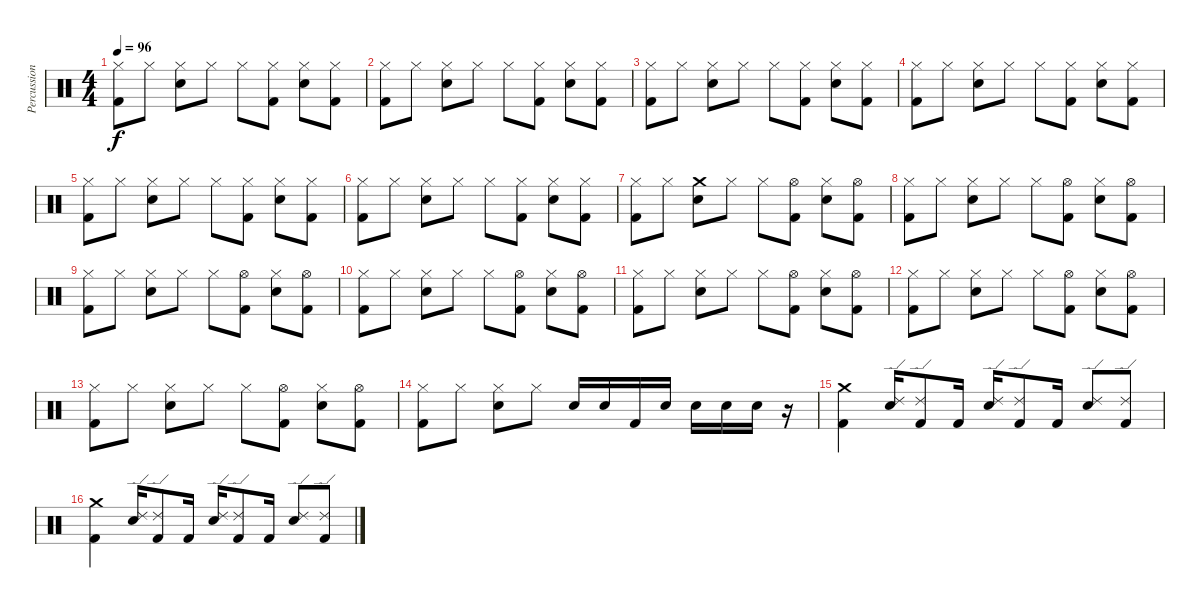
\track ("Percussion" "Percussion") {instrument percussion}
\staff {score}
\articulation defaults
\ts (4 4)
\tempo 96
\clef neutral
\ks c
("Hi-Hat (closed)" "Kick (hit) 2").8{dy f} "Hi-Hat (closed)".8 ("Hi-Hat (closed)" "Snare (hit) 2").8 "Hi-Hat (closed)".8 "Hi-Hat (closed)".8 ("Hi-Hat (closed)" "Kick (hit) 2").8 ("Hi-Hat (closed)" "Snare (hit) 2").8 ("Hi-Hat (closed)" "Kick (hit) 2").8 |
("Hi-Hat (closed)" "Kick (hit) 2").8 "Hi-Hat (closed)".8 ("Hi-Hat (closed)" "Snare (hit) 2").8 "Hi-Hat (closed)".8 "Hi-Hat (closed)".8 ("Hi-Hat (closed)" "Kick (hit) 2").8 ("Hi-Hat (closed)" "Snare (hit) 2").8 ("Hi-Hat (closed)" "Kick (hit) 2").8 |
("Hi-Hat (closed)" "Kick (hit) 2").8 "Hi-Hat (closed)".8 ("Hi-Hat (closed)" "Snare (hit) 2").8 "Hi-Hat (closed)".8 "Hi-Hat (closed)".8 ("Hi-Hat (closed)" "Kick (hit) 2").8 ("Hi-Hat (closed)" "Snare (hit) 2").8 ("Hi-Hat (closed)" "Kick (hit) 2").8 |
("Hi-Hat (closed)" "Kick (hit) 2").8 "Hi-Hat (closed)".8 ("Hi-Hat (closed)" "Snare (hit) 2").8 "Hi-Hat (closed)".8 "Hi-Hat (closed)".8 ("Hi-Hat (closed)" "Kick (hit) 2").8 ("Hi-Hat (closed)" "Snare (hit) 2").8 ("Hi-Hat (closed)" "Kick (hit) 2").8 |
("Hi-Hat (closed)" "Kick (hit) 2").8 "Hi-Hat (closed)".8 ("Hi-Hat (closed)" "Snare (hit) 2").8 "Hi-Hat (closed)".8 "Hi-Hat (closed)".8 ("Hi-Hat (closed)" "Kick (hit) 2").8 ("Hi-Hat (closed)" "Snare (hit) 2").8 ("Hi-Hat (closed)" "Kick (hit) 2").8 |
("Hi-Hat (closed)" "Kick (hit) 2").8 "Hi-Hat (closed)".8 ("Hi-Hat (closed)" "Snare (hit) 2").8 "Hi-Hat (closed)".8 "Hi-Hat (closed)".8 ("Hi-Hat (closed)" "Kick (hit) 2").8 ("Hi-Hat (closed)" "Snare (hit) 2").8 ("Hi-Hat (closed)" "Kick (hit) 2").8 |
("Hi-Hat (closed)" "Kick (hit) 2").8 "Hi-Hat (closed)".8 ("Crash medium (hit)" "Snare (hit) 2").8 "Hi-Hat (closed)".8 "Hi-Hat (closed)".8 ("Hi-Hat (open)" "Kick (hit) 2").8 ("Hi-Hat (closed)" "Snare (hit) 2").8 ("Hi-Hat (open)" "Kick (hit) 2").8 |
("Hi-Hat (closed)" "Kick (hit) 2").8 "Hi-Hat (closed)".8 ("Hi-Hat (closed)" "Snare (hit) 2").8 "Hi-Hat (closed)".8 "Hi-Hat (closed)".8 ("Hi-Hat (open)" "Kick (hit) 2").8 ("Hi-Hat (closed)" "Snare (hit) 2").8 ("Hi-Hat (open)" "Kick (hit) 2").8 |
("Hi-Hat (closed)" "Kick (hit) 2").8 "Hi-Hat (closed)".8 ("Hi-Hat (closed)" "Snare (hit) 2").8 "Hi-Hat (closed)".8 "Hi-Hat (closed)".8 ("Hi-Hat (open)" "Kick (hit) 2").8 ("Hi-Hat (closed)" "Snare (hit) 2").8 ("Hi-Hat (open)" "Kick (hit) 2").8 |
("Hi-Hat (closed)" "Kick (hit) 2").8 "Hi-Hat (closed)".8 ("Hi-Hat (closed)" "Snare (hit) 2").8 "Hi-Hat (closed)".8 "Hi-Hat (closed)".8 ("Hi-Hat (open)" "Kick (hit) 2").8 ("Hi-Hat (closed)" "Snare (hit) 2").8 ("Hi-Hat (open)" "Kick (hit) 2").8 |
("Hi-Hat (closed)" "Kick (hit) 2").8 "Hi-Hat (closed)".8 ("Hi-Hat (closed)" "Snare (hit) 2").8 "Hi-Hat (closed)".8 "Hi-Hat (closed)".8 ("Hi-Hat (open)" "Kick (hit) 2").8 ("Hi-Hat (closed)" "Snare (hit) 2").8 ("Hi-Hat (open)" "Kick (hit) 2").8 |
("Hi-Hat (closed)" "Kick (hit) 2").8 "Hi-Hat (closed)".8 ("Hi-Hat (closed)" "Snare (hit) 2").8 "Hi-Hat (closed)".8 "Hi-Hat (closed)".8 ("Hi-Hat (open)" "Kick (hit) 2").8 ("Hi-Hat (closed)" "Snare (hit) 2").8 ("Hi-Hat (open)" "Kick (hit) 2").8 |
("Hi-Hat (closed)" "Kick (hit) 2").8 "Hi-Hat (closed)".8 ("Hi-Hat (closed)" "Snare (hit) 2").8 "Hi-Hat (closed)".8 "Hi-Hat (closed)".8 ("Hi-Hat (open)" "Kick (hit) 2").8 ("Hi-Hat (closed)" "Snare (hit) 2").8 ("Hi-Hat (open)" "Kick (hit) 2").8 |
("Hi-Hat (closed)" "Kick (hit) 2").8 "Hi-Hat (closed)".8 ("Hi-Hat (closed)" "Snare (hit) 2").8 "Hi-Hat (closed)".8 "Snare (hit) 2".16 "Snare (hit) 2".16 "Kick (hit) 2".16 "Snare (hit) 2".16 "Snare (hit) 2".16 "Snare (hit) 2".16 "Snare (hit) 2".16 r.16 |
("Crash medium (hit)" "Kick (hit) 2").4 ("Ride (edge) 2" "Snare (hit) 2").16 ("Ride (edge) 2" "Kick (hit) 2").8 "Kick (hit) 2".16 ("Ride (edge) 2" "Snare (hit) 2").16 ("Ride (edge) 2" "Kick (hit) 2").8 "Kick (hit) 2".16 ("Ride (edge) 2" "Snare (hit) 2").8 ("Ride (edge) 2" "Kick (hit) 2").8 |
("Crash medium (hit)" "Kick (hit) 2").4 ("Ride (edge) 2" "Snare (hit) 2").16 ("Ride (edge) 2" "Kick (hit) 2").8 "Kick (hit) 2".16 ("Ride (edge) 2" "Snare (hit) 2").16 ("Ride (edge) 2" "Kick (hit) 2").8 "Kick (hit) 2".16 ("Ride (edge) 2" "Snare (hit) 2").8 ("Ride (edge) 2" "Kick (hit) 2").8
